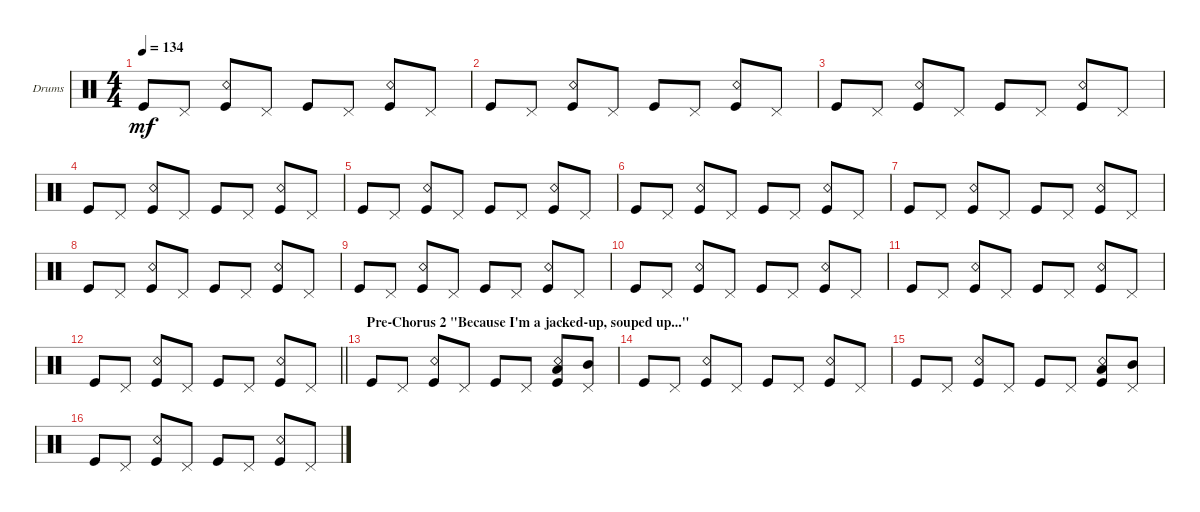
\bracketExtendMode groupsimilarinstruments
\firstSystemTrackNameOrientation horizontal
\otherSystemsTrackNameOrientation horizontal
\track ("Nicky Bomba" "Drums") {instrument percussion}
\staff {score}
\articulation defaults
\ts (4 4)
\tempo 134
\clef neutral
\scale
0.333333
\ks c "Kick (hit)".8{dy mf} "Pedal Hi-Hat (hit)".8
("Kick (hit)" "Snare (rim shot)").8 "Pedal Hi-Hat (hit)".8 "Kick (hit)".8 "Pedal Hi-Hat (hit)".8 ("Kick (hit)" "Snare (rim shot)").8 "Pedal Hi-Hat (hit)".8 |
\scale
0.333333 "Kick (hit)".8 "Pedal Hi-Hat (hit)".8 ("Kick (hit)" "Snare (rim shot)").8 "Pedal Hi-Hat (hit)".8 "Kick (hit)".8 "Pedal Hi-Hat (hit)".8 ("Kick (hit)" "Snare (rim shot)").8 "Pedal Hi-Hat (hit)".8 |
\scale
0.333333 "Kick (hit)".8 "Pedal Hi-Hat (hit)".8 ("Kick (hit)" "Snare (rim shot)").8 "Pedal Hi-Hat (hit)".8 "Kick (hit)".8 "Pedal Hi-Hat (hit)".8 ("Kick (hit)" "Snare (rim shot)").8 "Pedal Hi-Hat (hit)".8 |
\scale
0.333333 "Kick (hit)".8 "Pedal Hi-Hat (hit)".8 ("Kick (hit)" "Snare (rim shot)").8 "Pedal Hi-Hat (hit)".8 "Kick (hit)".8 "Pedal Hi-Hat (hit)".8 ("Kick (hit)" "Snare (rim shot)").8 "Pedal Hi-Hat (hit)".8 |
\scale
0.333333 "Kick (hit)".8 "Pedal Hi-Hat (hit)".8 ("Kick (hit)" "Snare (rim shot)").8 "Pedal Hi-Hat (hit)".8 "Kick (hit)".8 "Pedal Hi-Hat (hit)".8 ("Kick (hit)" "Snare (rim shot)").8 "Pedal Hi-Hat (hit)".8 |
\scale
0.333333 "Kick (hit)".8 "Pedal Hi-Hat (hit)".8 ("Kick (hit)" "Snare (rim shot)").8 "Pedal Hi-Hat (hit)".8 "Kick (hit)".8 "Pedal Hi-Hat (hit)".8 ("Kick (hit)" "Snare (rim shot)").8 "Pedal Hi-Hat (hit)".8 |
\scale
0.333333 "Kick (hit)".8 "Pedal Hi-Hat (hit)".8 ("Kick (hit)" "Snare (rim shot)").8 "Pedal Hi-Hat (hit)".8 "Kick (hit)".8 "Pedal Hi-Hat (hit)".8 ("Kick (hit)" "Snare (rim shot)").8 "Pedal Hi-Hat (hit)".8 |
\scale
0.333333 "Kick (hit)".8 "Pedal Hi-Hat (hit)".8 ("Kick (hit)" "Snare (rim shot)").8 "Pedal Hi-Hat (hit)".8 "Kick (hit)".8 "Pedal Hi-Hat (hit)".8 ("Kick (hit)" "Snare (rim shot)").8 "Pedal Hi-Hat (hit)".8 |
\scale
0.333333 "Kick (hit)".8 "Pedal Hi-Hat (hit)".8 ("Kick (hit)" "Snare (rim shot)").8 "Pedal Hi-Hat (hit)".8 "Kick (hit)".8 "Pedal Hi-Hat (hit)".8 ("Kick (hit)" "Snare (rim shot)").8 "Pedal Hi-Hat (hit)".8 |
\scale
0.333333 "Kick (hit)".8 "Pedal Hi-Hat (hit)".8 ("Kick (hit)" "Snare (rim shot)").8 "Pedal Hi-Hat (hit)".8 "Kick (hit)".8 "Pedal Hi-Hat (hit)".8 ("Kick (hit)" "Snare (rim shot)").8 "Pedal Hi-Hat (hit)".8 |
\scale
0.333333 "Kick (hit)".8 "Pedal Hi-Hat (hit)".8 ("Kick (hit)" "Snare (rim shot)").8 "Pedal Hi-Hat (hit)".8 "Kick (hit)".8 "Pedal Hi-Hat (hit)".8 ("Kick (hit)" "Snare (rim shot)").8 "Pedal Hi-Hat (hit)".8 |
\scale
0.333333
\barLineRight lightlight "Kick (hit)".8 "Pedal Hi-Hat (hit)".8
("Kick (hit)" "Snare (rim shot)").8 "Pedal Hi-Hat (hit)".8 "Kick (hit)".8 "Pedal Hi-Hat (hit)".8 ("Kick (hit)" "Snare (rim shot)").8 "Pedal Hi-Hat (hit)".8 |
\section ("" "Pre-Chorus 2 \"Because I'm a jacked-up, souped up...\"")
\scale
0.333333 "Kick (hit)".8 "Pedal Hi-Hat (hit)".8 ("Kick (hit)" "Snare (rim shot)").8 "Pedal Hi-Hat (hit)".8 "Kick (hit)".8 "Pedal Hi-Hat (hit)".8 ("Kick (hit)" "Snare (rim shot)" "Low Tom (hit)").8 ("Pedal Hi-Hat (hit)" "Mid Tom (hit)").8 |
\scale
0.333333 "Kick (hit)".8 "Pedal Hi-Hat (hit)".8 ("Kick (hit)" "Snare (rim shot)").8 "Pedal Hi-Hat (hit)".8 "Kick (hit)".8 "Pedal Hi-Hat (hit)".8 ("Kick (hit)" "Snare (rim shot)").8 "Pedal Hi-Hat (hit)".8 |
\scale
0.333333 "Kick (hit)".8 "Pedal Hi-Hat (hit)".8 ("Kick (hit)" "Snare (rim shot)").8 "Pedal Hi-Hat (hit)".8 "Kick (hit)".8 "Pedal Hi-Hat (hit)".8 ("Kick (hit)" "Snare (rim shot)" "Low Tom (hit)").8 ("Pedal Hi-Hat (hit)" "Mid Tom (hit)").8 |
\scale
0.333333 "Kick (hit)".8 "Pedal Hi-Hat (hit)".8 ("Kick (hit)" "Snare (rim shot)").8 "Pedal Hi-Hat (hit)".8 "Kick (hit)".8 "Pedal Hi-Hat (hit)".8 ("Kick (hit)" "Snare (rim shot)").8 "Pedal Hi-Hat (hit)".8
